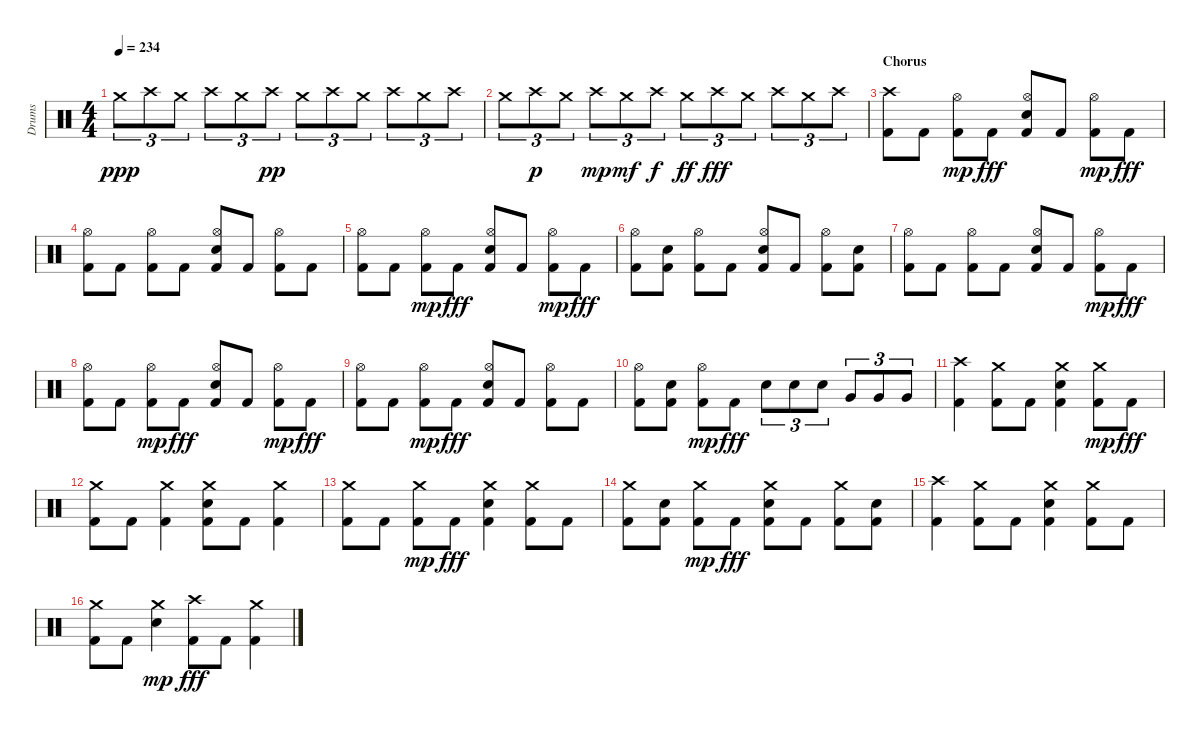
\track ("Drums" "Drums") {instrument percussion}
\staff {score}
\articulation defaults
\ts (4 4)
\tempo 234
\clef neutral
\ks aminor "Crash medium (hit)".8{tu (3 2) dy ppp} "Crash high (hit)".8{tu (3 2)} "Crash medium (hit)".8{tu (3 2)} "Crash high (hit)".8{tu (3 2)} "Crash medium (hit)".8{tu (3 2)} "Crash high (hit)".8{tu (3 2) dy pp} "Crash medium (hit)".8{tu (3 2)} "Crash high (hit)".8{tu (3 2)} "Crash medium (hit)".8{tu (3 2)} "Crash high (hit)".8{tu (3 2)} "Crash medium (hit)".8{tu (3 2)} "Crash high (hit)".8{tu (3 2)}
|
"Crash medium (hit)".8{tu (3 2)} "Crash high (hit)".8{tu (3 2) dy p} "Crash medium (hit)".8{tu (3 2)} "Crash high (hit)".8{tu (3 2) dy mp} "Crash medium (hit)".8{tu (3 2) dy mf} "Crash high (hit)".8{tu (3 2) dy f} "Crash medium (hit)".8{tu (3 2) dy ff} "Crash high (hit)".8{tu (3 2) dy fff} "Crash medium (hit)".8{tu (3 2)} "Crash high (hit)".8{tu (3 2)} "Crash medium (hit)".8{tu (3 2)} "Crash high (hit)".8{tu (3 2)} |
\section ("" "Chorus")
("Kick (hit) 2" "Crash high (hit)").8 "Kick (hit) 2".8 ("Hi-Hat (open)" "Kick (hit) 2").8{dy mp} "Kick (hit) 2".8{dy fff} ("Kick (hit) 2" "Hi-Hat (open)" "Snare (hit) 2").8 "Kick (hit) 2".8 ("Kick (hit) 2" "Hi-Hat (open)").8{dy mp} "Kick (hit) 2".8{dy fff} |
("Kick (hit) 2" "Hi-Hat (open)").8 "Kick (hit) 2".8 ("Hi-Hat (open)" "Kick (hit) 2").8 "Kick (hit) 2".8 ("Hi-Hat (open)" "Kick (hit) 2" "Snare (hit) 2").8 "Kick (hit) 2".8 ("Hi-Hat (open)" "Kick (hit) 2").8 "Kick (hit) 2".8 |
("Kick (hit) 2" "Hi-Hat (open)").8 "Kick (hit) 2".8 ("Hi-Hat (open)" "Kick (hit) 2").8{dy mp} "Kick (hit) 2".8{dy fff} ("Kick (hit) 2" "Hi-Hat (open)" "Snare (hit) 2").8 "Kick (hit) 2".8 ("Kick (hit) 2" "Hi-Hat (open)").8{dy mp} "Kick (hit) 2".8{dy fff} |
("Hi-Hat (open)" "Kick (hit) 2").8 ("Kick (hit) 2" "Snare (hit) 2").8 ("Kick (hit) 2" "Hi-Hat (open)").8 "Kick (hit) 2".8 ("Hi-Hat (open)" "Kick (hit) 2" "Snare (hit) 2").8 "Kick (hit) 2".8 ("Kick (hit) 2" "Hi-Hat (open)").8 ("Kick (hit) 2" "Snare (hit) 2").8 |
("Hi-Hat (open)" "Kick (hit) 2").8 "Kick (hit) 2".8 ("Hi-Hat (open)" "Kick (hit) 2").8 "Kick (hit) 2".8 ("Hi-Hat (open)" "Snare (hit) 2" "Kick (hit) 2").8 "Kick (hit) 2".8 ("Hi-Hat (open)" "Kick (hit) 2").8{dy mp} "Kick (hit) 2".8{dy fff} |
("Kick (hit) 2" "Hi-Hat (open)").8 "Kick (hit) 2".8 ("Kick (hit) 2" "Hi-Hat (open)").8{dy mp} "Kick (hit) 2".8{dy fff} ("Snare (hit) 2" "Hi-Hat (open)" "Kick (hit) 2").8 "Kick (hit) 2".8 ("Kick (hit) 2" "Hi-Hat (open)").8{dy mp} "Kick (hit) 2".8{dy fff} |
("Hi-Hat (open)" "Kick (hit) 2").8 "Kick (hit) 2".8 ("Hi-Hat (open)" "Kick (hit) 2").8{dy mp} "Kick (hit) 2".8{dy fff} ("Kick (hit) 2" "Hi-Hat (open)" "Snare (hit) 2").8 "Kick (hit) 2".8 ("Kick (hit) 2" "Hi-Hat (open)").8 "Kick (hit) 2".8 |
("Kick (hit) 2" "Hi-Hat (open)").8 ("Kick (hit) 2" "Snare (hit) 2").8 ("Kick (hit) 2" "Hi-Hat (open)").8{dy mp} "Kick (hit) 2".8{dy fff} "Snare (hit) 2".8{tu (3 2)} "Snare (hit) 2".8{tu (3 2)} "Snare (hit) 2".8{tu (3 2)} "Very Low Tom (hit)".8{tu (3 2)} "Very Low Tom (hit)".8{tu (3 2)} "Very Low Tom (hit)".8{tu (3 2)} |
("Crash high (hit)" "Kick (hit) 2").4 ("Kick (hit) 2" "Crash medium (hit)").8 "Kick (hit) 2".8 ("Crash medium (hit)" "Kick (hit) 2" "Snare (hit) 2").4 ("Kick (hit) 2" "Crash medium (hit)").8{dy mp} "Kick (hit) 2".8{dy fff} |
("Crash medium (hit)" "Kick (hit) 2").8 "Kick (hit) 2".8 ("Kick (hit) 2" "Crash medium (hit)").4 ("Crash medium (hit)" "Snare (hit) 2" "Kick (hit) 2").8 "Kick (hit) 2".8 ("Kick (hit) 2" "Crash medium (hit)").4 |
("Crash medium (hit)" "Kick (hit) 2").8 "Kick (hit) 2".8 ("Crash medium (hit)" "Kick (hit) 2").8{dy mp} "Kick (hit) 2".8{dy fff} ("Kick (hit) 2" "Crash medium (hit)" "Snare (hit) 2").4 ("Crash medium (hit)" "Kick (hit) 2").8 "Kick (hit) 2".8 |
("Crash medium (hit)" "Kick (hit) 2").8 ("Kick (hit) 2" "Snare (hit) 2").8 ("Kick (hit) 2" "Crash medium (hit)").8{dy mp} "Kick (hit) 2".8{dy fff} ("Kick (hit) 2" "Snare (hit) 2" "Crash medium (hit)").8 "Kick (hit) 2".8 ("Crash medium (hit)" "Kick (hit) 2").8 ("Kick (hit) 2" "Snare (hit) 2").8 |
("Crash high (hit)" "Kick (hit) 2").4 ("Kick (hit) 2" "Crash medium (hit)").8 "Kick (hit) 2".8 ("Kick (hit) 2" "Snare (hit) 2" "Crash medium (hit)").4 ("Crash medium (hit)" "Kick (hit) 2").8 "Kick (hit) 2".8 |
("Kick (hit) 2" "Crash medium (hit)").8 "Kick (hit) 2".8 ("Snare (hit) 2" "Crash medium (hit)").4{dy mp} ("Crash high (hit)" "Kick (hit) 2").8{dy fff} "Kick (hit) 2".8 ("Kick (hit) 2" "Crash medium (hit)").4
